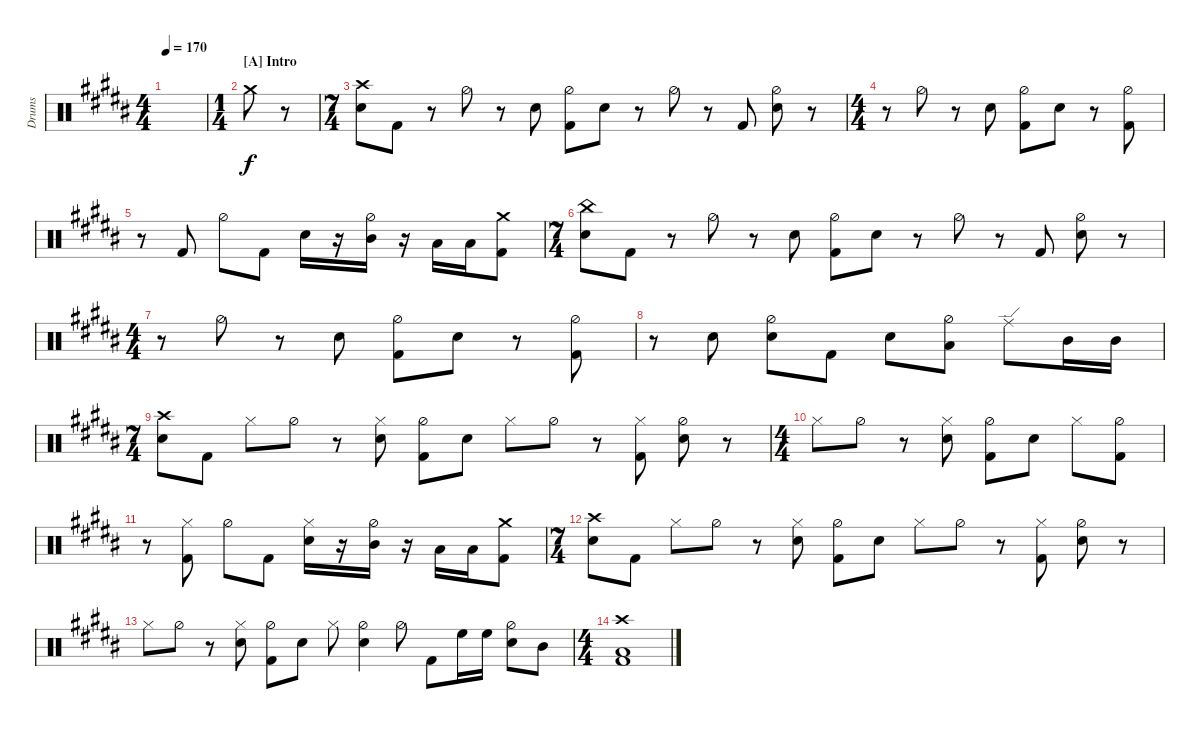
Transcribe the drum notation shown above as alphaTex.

\bracketExtendMode groupsimilarinstruments
\otherSystemsTrackNameOrientation horizontal
\track ("Drumkit" "Drums") {instrument percussion}
\staff {score}
\articulation defaults
\ts (4 4)
\tempo 170
\clef neutral
\ks b
|
\ts (1 4)
\section ("A" "Intro")
"Crash medium (hit)"{acc forcenatural}.8 r.8 |
\ts (7 4)
("Snare (hit) 2"{acc forcenatural} "Crash high (hit)"{acc forcenatural}).8 "Kick (hit) 2"{acc forcenatural}.8 r.8 "Hi-Hat (half)"{acc forcenatural}.8 r.8 "Snare (hit) 2"{acc forcenatural}.8 ("Hi-Hat (half)"{acc forcenatural} "Kick (hit) 2"{acc forcenatural}).8 "Snare (hit) 2"{acc forcenatural}.8 r.8 "Hi-Hat (half)"{acc forcenatural}.8 r.8 "Kick (hit) 2"{acc forcenatural}.8 ("Snare (hit) 2"{acc forcenatural} "Hi-Hat (half)"{acc forcenatural}).8 r.8 |
\ts (4 4)
r.8 "Hi-Hat (half)"{acc forcenatural}.8 r.8 "Snare (hit) 2"{acc forcenatural}.8 ("Hi-Hat (half)"{acc forcenatural} "Kick (hit) 2"{acc forcenatural}).8 "Snare (hit) 2"{acc forcenatural}.8 r.8 ("Hi-Hat (half)"{acc forcenatural} "Kick (hit) 2"{acc forcenatural}).8 |
r.8 "Kick (hit) 2"{acc forcenatural}.8 "Hi-Hat (half)"{acc forcenatural}.8 "Kick (hit) 2"{acc forcenatural}.8 "Snare (hit) 2"{acc forcenatural}.16 r.16 ("Mid Tom (hit)"{acc forcenatural} "Hi-Hat (half)"{acc forcenatural}).16 r.16 "Low Tom (hit)"{acc forcenatural}.16 "Low Tom (hit)"{acc forcenatural}.16 ("Kick (hit) 2"{acc forcenatural} "Crash medium (hit)"{acc forcenatural}).8 |
\ts (7 4)
("Snare (hit) 2"{acc forcenatural} "China (hit)"{acc forcenatural}).8 "Kick (hit) 2"{acc forcenatural}.8 r.8 "Hi-Hat (half)"{acc forcenatural}.8 r.8 "Snare (hit) 2"{acc forcenatural}.8 ("Hi-Hat (half)"{acc forcenatural} "Kick (hit) 2"{acc forcenatural}).8 "Snare (hit) 2"{acc forcenatural}.8 r.8 "Hi-Hat (half)"{acc forcenatural}.8 r.8 "Kick (hit) 2"{acc forcenatural}.8 ("Snare (hit) 2"{acc forcenatural} "Hi-Hat (half)"{acc forcenatural}).8 r.8 |
\ts (4 4)
r.8 "Hi-Hat (half)"{acc forcenatural}.8 r.8 "Snare (hit) 2"{acc forcenatural}.8 ("Hi-Hat (half)"{acc forcenatural} "Kick (hit) 2"{acc forcenatural}).8 "Snare (hit) 2"{acc forcenatural}.8 r.8 ("Hi-Hat (half)"{acc forcenatural} "Kick (hit) 2"{acc forcenatural}).8 |
r.8 "Snare (hit) 2"{acc forcenatural}.8 ("Snare (hit) 2"{acc forcenatural} "Hi-Hat (half)"{acc forcenatural}).8 "Kick (hit) 2"{acc forcenatural}.8 "Snare (hit) 2"{acc forcenatural}.8 ("Low Tom (hit)"{acc forcenatural} "Hi-Hat (half)"{acc forcenatural}).8 "Ride (edge)"{acc forcenatural}.8 "Mid Tom (hit)"{acc forcenatural}.16 "Mid Tom (hit)"{acc forcenatural}.16 |
\ts (7 4)
("Snare (hit) 2"{acc forcenatural} "Crash high (hit)"{acc forcenatural}).8 "Kick (hit) 2"{acc forcenatural}.8 "Hi-Hat (closed)"{acc forcenatural}.8 "Hi-Hat (half)"{acc forcenatural}.8 r.8 ("Snare (hit) 2"{acc forcenatural} "Hi-Hat (closed)"{acc forcenatural}).8 ("Hi-Hat (half)"{acc forcenatural} "Kick (hit) 2"{acc forcenatural}).8 "Snare (hit) 2"{acc forcenatural}.8 "Hi-Hat (closed)"{acc forcenatural}.8 "Hi-Hat (half)"{acc forcenatural}.8 r.8 ("Kick (hit) 2"{acc forcenatural} "Hi-Hat (closed)"{acc forcenatural}).8 ("Snare (hit) 2"{acc forcenatural} "Hi-Hat (half)"{acc forcenatural}).8 r.8 |
\ts (4 4)
"Hi-Hat (closed)"{acc forcenatural}.8 "Hi-Hat (half)"{acc forcenatural}.8 r.8 ("Snare (hit) 2"{acc forcenatural} "Hi-Hat (closed)"{acc forcenatural}).8 ("Hi-Hat (half)"{acc forcenatural} "Kick (hit) 2"{acc forcenatural}).8 "Snare (hit) 2"{acc forcenatural}.8 "Hi-Hat (closed)"{acc forcenatural}.8 ("Hi-Hat (half)"{acc forcenatural} "Kick (hit) 2"{acc forcenatural}).8 |
r.8 ("Kick (hit) 2"{acc forcenatural} "Hi-Hat (closed)"{acc forcenatural}).8 "Hi-Hat (half)"{acc forcenatural}.8 "Kick (hit) 2"{acc forcenatural}.8 ("Hi-Hat (closed)"{acc forcenatural} "Snare (hit) 2"{acc forcenatural}).16 r.16 ("Mid Tom (hit)"{acc forcenatural} "Hi-Hat (half)"{acc forcenatural}).16 r.16 "Low Tom (hit)"{acc forcenatural}.16 "Low Tom (hit)"{acc forcenatural}.16 ("Kick (hit) 2"{acc forcenatural} "Crash medium (hit)"{acc forcenatural}).8 |
\ts (7 4)
("Snare (hit) 2"{acc forcenatural} "Crash high (hit)"{acc forcenatural}).8 "Kick (hit) 2"{acc forcenatural}.8 "Hi-Hat (closed)"{acc forcenatural}.8 "Hi-Hat (half)"{acc forcenatural}.8 r.8 ("Snare (hit) 2"{acc forcenatural} "Hi-Hat (closed)"{acc forcenatural}).8 ("Hi-Hat (half)"{acc forcenatural} "Kick (hit) 2"{acc forcenatural}).8 "Snare (hit) 2"{acc forcenatural}.8 "Hi-Hat (closed)"{acc forcenatural}.8 "Hi-Hat (half)"{acc forcenatural}.8 r.8 ("Kick (hit) 2"{acc forcenatural} "Hi-Hat (closed)"{acc forcenatural}).8 ("Snare (hit) 2"{acc forcenatural} "Hi-Hat (half)"{acc forcenatural}).8 r.8 |
"Hi-Hat (closed)"{acc forcenatural}.8 "Hi-Hat (half)"{acc forcenatural}.8 r.8 ("Snare (hit) 2"{acc forcenatural} "Hi-Hat (closed)"{acc forcenatural}).8 ("Hi-Hat (half)"{acc forcenatural} "Kick (hit) 2"{acc forcenatural}).8 "Snare (hit) 2"{acc forcenatural}.8 "Hi-Hat (closed)"{acc forcenatural}.8 ("Snare (hit) 2"{acc forcenatural} "Hi-Hat (half)"{acc forcenatural}).4 "Hi-Hat (half)"{acc forcenatural}.8 "Kick (hit) 2"{acc forcenatural}.8 "High Floor Tom (hit)"{acc forcenatural}.16 "High Floor Tom (hit)"{acc forcenatural}.16 ("Snare (hit) 2"{acc forcenatural} "Hi-Hat (half)"{acc forcenatural}).8 "Mid Tom (hit)"{acc forcenatural}.8 |
\ts (4 4)
("Crash high (hit)"{acc forcenatural} "Kick (hit) 2"{acc forcenatural} "Low Tom (hit)"{acc forcenatural}).1
